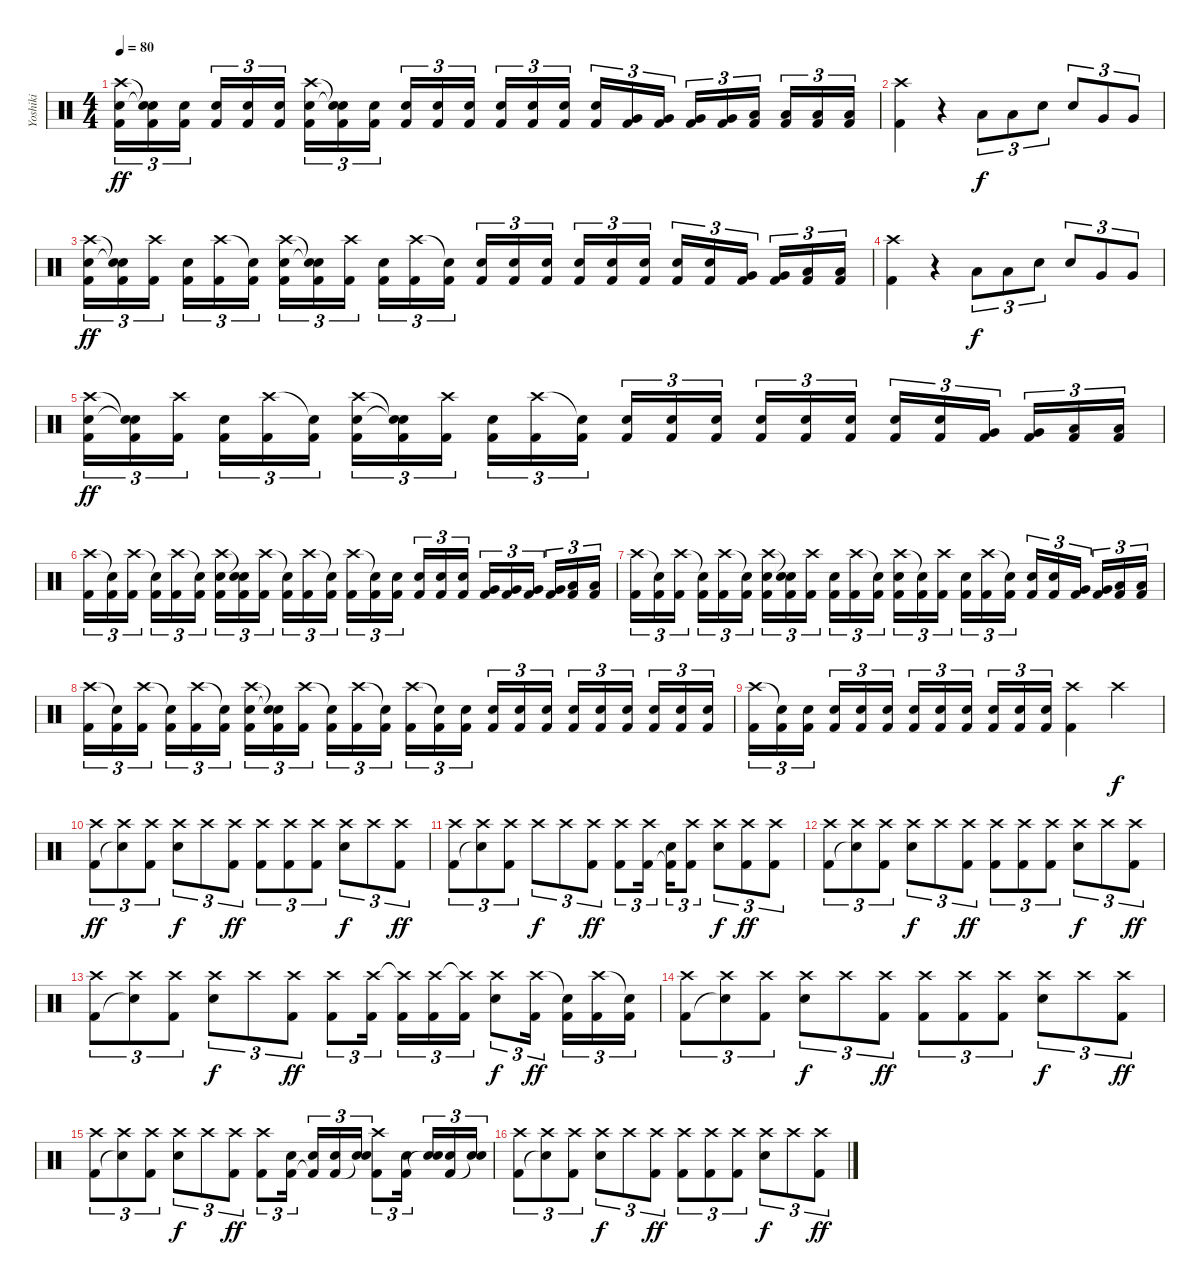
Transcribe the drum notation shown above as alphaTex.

\track ("Yoshiki" "Yoshiki") {instrument percussion}
\staff {score}
\articulation defaults
\ts (4 4)
\tempo 80
\clef neutral
\ks c
("Crash high (hit)" "Snare (hit) 2" "Kick (hit) 2").16{tu (3 2) dy ff} ("Snare (hit)"{t} "Snare (hit)"{t} "Kick (hit) 2").16{tu (3 2)} ("Snare (hit) 2" "Kick (hit) 2").16{tu (3 2)} ("Snare (hit) 2" "Kick (hit) 2").16{tu (3 2)} ("Snare (hit) 2" "Kick (hit) 2").16{tu (3 2)} ("Snare (hit) 2" "Kick (hit) 2").16{tu (3 2)} ("Crash high (hit)" "Snare (hit) 2" "Kick (hit) 2").16{tu (3 2)} ("Snare (hit)"{t} "Snare (hit)"{t} "Kick (hit) 2").16{tu (3 2)} ("Snare (hit) 2" "Kick (hit) 2").16{tu (3 2)} ("Snare (hit) 2" "Kick (hit) 2").16{tu (3 2)} ("Snare (hit) 2" "Kick (hit) 2").16{tu (3 2)} ("Snare (hit) 2" "Kick (hit) 2").16{tu (3 2)} ("Snare (hit) 2" "Kick (hit) 2").16{tu (3 2)} ("Snare (hit) 2" "Kick (hit) 2").16{tu (3 2)} ("Snare (hit) 2" "Kick (hit) 2").16{tu (3 2)} ("Snare (hit) 2" "Kick (hit) 2").16{tu (3 2)} ("Very Low Tom (hit)" "Kick (hit) 2").16{tu (3 2)} ("Very Low Tom (hit)" "Kick (hit) 2").16{tu (3 2)} ("Very Low Tom (hit)" "Kick (hit) 2").16{tu (3 2)} ("Very Low Tom (hit)" "Kick (hit) 2").16{tu (3 2)} ("Low Floor Tom (hit)" "Kick (hit) 2").16{tu (3 2)} ("Low Floor Tom (hit)" "Kick (hit) 2").16{tu (3 2)} ("Low Floor Tom (hit)" "Kick (hit) 2").16{tu (3 2)} ("Low Floor Tom (hit)" "Kick (hit) 2").16{tu (3 2)} |
("Crash high (hit)" "Kick (hit) 2").4 r.4 "Low Tom (hit)".8{tu (3 2) dy f} "Low Tom (hit)".8{tu (3 2)} "Snare (hit) 2".8{tu (3 2)} "Snare (hit) 2".8{tu (3 2)} "Very Low Tom (hit)".8{tu (3 2)} "Very Low Tom (hit)".8{tu (3 2)} |
("Crash high (hit)" "Snare (hit) 2" "Kick (hit) 2").16{tu (3 2) dy ff} ("Snare (hit)"{t} "Snare (hit)"{t} "Kick (hit) 2").16{tu (3 2)} ("Crash high (hit)" "Kick (hit) 2").16{tu (3 2)} ("Snare (hit) 2" "Kick (hit) 2").16{tu (3 2)} ("Crash high (hit)" "Kick (hit) 2").16{tu (3 2)} ("Snare (hit)"{t} "Kick (hit) 2").16{tu (3 2)} ("Crash high (hit)" "Snare (hit) 2" "Kick (hit) 2").16{tu (3 2)} ("Snare (hit)"{t} "Snare (hit)"{t} "Kick (hit) 2").16{tu (3 2)} ("Crash high (hit)" "Kick (hit) 2").16{tu (3 2)} ("Snare (hit) 2" "Kick (hit) 2").16{tu (3 2)} ("Crash high (hit)" "Kick (hit) 2").16{tu (3 2)} ("Snare (hit)"{t} "Kick (hit) 2").16{tu (3 2)} ("Snare (hit) 2" "Kick (hit) 2").16{tu (3 2)} ("Snare (hit) 2" "Kick (hit) 2").16{tu (3 2)} ("Snare (hit) 2" "Kick (hit) 2").16{tu (3 2)} ("Snare (hit) 2" "Kick (hit) 2").16{tu (3 2)} ("Snare (hit) 2" "Kick (hit) 2").16{tu (3 2)} ("Snare (hit) 2" "Kick (hit) 2").16{tu (3 2)} ("Snare (hit) 2" "Kick (hit) 2").16{tu (3 2)} ("Snare (hit) 2" "Kick (hit) 2").16{tu (3 2)} ("Very Low Tom (hit)" "Kick (hit) 2").16{tu (3 2)} ("Very Low Tom (hit)" "Kick (hit) 2").16{tu (3 2)} ("Low Floor Tom (hit)" "Kick (hit) 2").16{tu (3 2)} ("Low Floor Tom (hit)" "Kick (hit) 2").16{tu (3 2)} |
("Crash high (hit)" "Kick (hit) 2").4 r.4 "Low Tom (hit)".8{tu (3 2) dy f} "Low Tom (hit)".8{tu (3 2)} "Snare (hit) 2".8{tu (3 2)} "Snare (hit) 2".8{tu (3 2)} "Very Low Tom (hit)".8{tu (3 2)} "Very Low Tom (hit)".8{tu (3 2)} |
("Crash high (hit)" "Snare (hit) 2" "Kick (hit) 2").16{tu (3 2) dy ff} ("Snare (hit)"{t} "Snare (hit)"{t} "Kick (hit) 2").16{tu (3 2)} ("Crash high (hit)" "Kick (hit) 2").16{tu (3 2)} ("Snare (hit) 2" "Kick (hit) 2").16{tu (3 2)} ("Crash high (hit)" "Kick (hit) 2").16{tu (3 2)} ("Snare (hit)"{t} "Kick (hit) 2").16{tu (3 2)} ("Crash high (hit)" "Snare (hit) 2" "Kick (hit) 2").16{tu (3 2)} ("Snare (hit)"{t} "Snare (hit)"{t} "Kick (hit) 2").16{tu (3 2)} ("Crash high (hit)" "Kick (hit) 2").16{tu (3 2)} ("Snare (hit) 2" "Kick (hit) 2").16{tu (3 2)} ("Crash high (hit)" "Kick (hit) 2").16{tu (3 2)} ("Snare (hit)"{t} "Kick (hit) 2").16{tu (3 2)} ("Snare (hit) 2" "Kick (hit) 2").16{tu (3 2)} ("Snare (hit) 2" "Kick (hit) 2").16{tu (3 2)} ("Snare (hit) 2" "Kick (hit) 2").16{tu (3 2)} ("Snare (hit) 2" "Kick (hit) 2").16{tu (3 2)} ("Snare (hit) 2" "Kick (hit) 2").16{tu (3 2)} ("Snare (hit) 2" "Kick (hit) 2").16{tu (3 2)} ("Snare (hit) 2" "Kick (hit) 2").16{tu (3 2)} ("Snare (hit) 2" "Kick (hit) 2").16{tu (3 2)} ("Very Low Tom (hit)" "Kick (hit) 2").16{tu (3 2)} ("Very Low Tom (hit)" "Kick (hit) 2").16{tu (3 2)} ("Low Floor Tom (hit)" "Kick (hit) 2").16{tu (3 2)} ("Low Floor Tom (hit)" "Kick (hit) 2").16{tu (3 2)} |
("Crash high (hit)" "Kick (hit) 2").16{tu (3 2)} ("Snare (hit)"{t} "Kick (hit) 2").16{tu (3 2)} ("Crash high (hit)" "Kick (hit) 2").16{tu (3 2)} ("Snare (hit)"{t} "Kick (hit) 2").16{tu (3 2)} ("Crash high (hit)" "Kick (hit) 2").16{tu (3 2)} ("Snare (hit)"{t} "Kick (hit) 2").16{tu (3 2)} ("Crash high (hit)" "Snare (hit) 2" "Kick (hit) 2").16{tu (3 2)} ("Snare (hit)"{t} "Snare (hit)"{t} "Kick (hit) 2").16{tu (3 2)} ("Crash high (hit)" "Kick (hit) 2").16{tu (3 2)} ("Snare (hit)"{t} "Kick (hit) 2").16{tu (3 2)} ("Crash high (hit)" "Kick (hit) 2").16{tu (3 2)} ("Snare (hit)"{t} "Kick (hit) 2").16{tu (3 2)} ("Crash high (hit)" "Kick (hit) 2").16{tu (3 2)} ("Snare (hit)"{t} "Kick (hit) 2").16{tu (3 2)} ("Snare (hit) 2" "Kick (hit) 2").16{tu (3 2)} ("Snare (hit) 2" "Kick (hit) 2").16{tu (3 2)} ("Snare (hit) 2" "Kick (hit) 2").16{tu (3 2)} ("Snare (hit) 2" "Kick (hit) 2").16{tu (3 2)} ("Very Low Tom (hit)" "Kick (hit) 2").16{tu (3 2)} ("Very Low Tom (hit)" "Kick (hit) 2").16{tu (3 2)} ("Very Low Tom (hit)" "Kick (hit) 2").16{tu (3 2)} ("Very Low Tom (hit)" "Kick (hit) 2").16{tu (3 2)} ("Low Floor Tom (hit)" "Kick (hit) 2").16{tu (3 2)} ("Low Floor Tom (hit)" "Kick (hit) 2").16{tu (3 2)} |
("Crash high (hit)" "Kick (hit) 2").16{tu (3 2)} ("Snare (hit)"{t} "Kick (hit) 2").16{tu (3 2)} ("Crash high (hit)" "Kick (hit) 2").16{tu (3 2)} ("Snare (hit)"{t} "Kick (hit) 2").16{tu (3 2)} ("Crash high (hit)" "Kick (hit) 2").16{tu (3 2)} ("Snare (hit)"{t} "Kick (hit) 2").16{tu (3 2)} ("Crash high (hit)" "Snare (hit) 2" "Kick (hit) 2").16{tu (3 2)} ("Snare (hit)"{t} "Snare (hit)"{t} "Kick (hit) 2").16{tu (3 2)} ("Crash high (hit)" "Kick (hit) 2").16{tu (3 2)} ("Snare (hit) 2" "Kick (hit) 2").16{tu (3 2)} ("Crash high (hit)" "Kick (hit) 2").16{tu (3 2)} ("Snare (hit)"{t} "Kick (hit) 2").16{tu (3 2)} ("Crash high (hit)" "Snare (hit) 2" "Kick (hit) 2").16{tu (3 2)} ("Snare (hit)"{t} "Kick (hit) 2").16{tu (3 2)} ("Crash high (hit)" "Kick (hit) 2").16{tu (3 2)} ("Snare (hit) 2" "Kick (hit) 2").16{tu (3 2)} ("Crash high (hit)" "Kick (hit) 2").16{tu (3 2)} ("Snare (hit)"{t} "Kick (hit) 2").16{tu (3 2)} ("Snare (hit) 2" "Kick (hit) 2").16{tu (3 2)} ("Snare (hit) 2" "Kick (hit) 2").16{tu (3 2)} ("Very Low Tom (hit)" "Kick (hit) 2").16{tu (3 2)} ("Very Low Tom (hit)" "Kick (hit) 2").16{tu (3 2)} ("Low Floor Tom (hit)" "Kick (hit) 2").16{tu (3 2)} ("Low Floor Tom (hit)" "Kick (hit) 2").16{tu (3 2)} |
("Crash high (hit)" "Kick (hit) 2").16{tu (3 2)} ("Snare (hit)"{t} "Kick (hit) 2").16{tu (3 2)} ("Crash high (hit)" "Kick (hit) 2").16{tu (3 2)} ("Snare (hit)"{t} "Kick (hit) 2").16{tu (3 2)} ("Crash high (hit)" "Kick (hit) 2").16{tu (3 2)} ("Snare (hit)"{t} "Kick (hit) 2").16{tu (3 2)} ("Crash high (hit)" "Snare (hit) 2" "Kick (hit) 2").16{tu (3 2)} ("Snare (hit)"{t} "Snare (hit)"{t} "Kick (hit) 2").16{tu (3 2)} ("Crash high (hit)" "Kick (hit) 2").16{tu (3 2)} ("Snare (hit)"{t} "Kick (hit) 2").16{tu (3 2)} ("Crash high (hit)" "Kick (hit) 2").16{tu (3 2)} ("Snare (hit)"{t} "Kick (hit) 2").16{tu (3 2)} ("Crash high (hit)" "Kick (hit) 2").16{tu (3 2)} ("Snare (hit)"{t} "Kick (hit) 2").16{tu (3 2)} ("Snare (hit) 2" "Kick (hit) 2").16{tu (3 2)} ("Snare (hit) 2" "Kick (hit) 2").16{tu (3 2)} ("Snare (hit) 2" "Kick (hit) 2").16{tu (3 2)} ("Snare (hit) 2" "Kick (hit) 2").16{tu (3 2)} ("Snare (hit) 2" "Kick (hit) 2").16{tu (3 2)} ("Snare (hit) 2" "Kick (hit) 2").16{tu (3 2)} ("Snare (hit) 2" "Kick (hit) 2").16{tu (3 2)} ("Snare (hit) 2" "Kick (hit) 2").16{tu (3 2)} ("Snare (hit) 2" "Kick (hit) 2").16{tu (3 2)} ("Snare (hit) 2" "Kick (hit) 2").16{tu (3 2)} |
("Crash high (hit)" "Kick (hit) 2").16{tu (3 2)} ("Snare (hit)"{t} "Kick (hit) 2").16{tu (3 2)} ("Snare (hit) 2" "Kick (hit) 2").16{tu (3 2)} ("Snare (hit) 2" "Kick (hit) 2").16{tu (3 2)} ("Snare (hit) 2" "Kick (hit) 2").16{tu (3 2)} ("Snare (hit) 2" "Kick (hit) 2").16{tu (3 2)} ("Snare (hit) 2" "Kick (hit) 2").16{tu (3 2)} ("Snare (hit) 2" "Kick (hit) 2").16{tu (3 2)} ("Snare (hit) 2" "Kick (hit) 2").16{tu (3 2)} ("Snare (hit) 2" "Kick (hit) 2").16{tu (3 2)} ("Snare (hit) 2" "Kick (hit) 2").16{tu (3 2)} ("Snare (hit) 2" "Kick (hit) 2").16{tu (3 2)} ("Crash high (hit)" "Kick (hit) 2").4 "Crash high (hit)".4{dy f} |
("Crash high (hit)" "Kick (hit) 2").8{tu (3 2) dy ff} ("Crash high (hit)" "Snare (hit)"{t}).8{tu (3 2)} ("Crash high (hit)" "Kick (hit) 2").8{tu (3 2)} ("Crash high (hit)" "Snare (hit) 2").8{tu (3 2) dy f} "Crash high (hit)".8{tu (3 2)} ("Crash high (hit)" "Kick (hit) 2").8{tu (3 2) dy ff} ("Crash high (hit)" "Kick (hit) 2").8{tu (3 2)} ("Crash high (hit)" "Kick (hit) 2").8{tu (3 2)} ("Crash high (hit)" "Kick (hit) 2").8{tu (3 2)} ("Crash high (hit)" "Snare (hit) 2").8{tu (3 2) dy f} "Crash high (hit)".8{tu (3 2)} ("Crash high (hit)" "Kick (hit) 2").8{tu (3 2) dy ff} |
("Crash high (hit)" "Kick (hit) 2").8{tu (3 2)} ("Crash high (hit)" "Snare (hit)"{t}).8{tu (3 2)} ("Crash high (hit)" "Kick (hit) 2").8{tu (3 2)} "Crash high (hit)".8{tu (3 2) dy f} "Crash high (hit)".8{tu (3 2)} ("Crash high (hit)" "Kick (hit) 2").8{tu (3 2) dy ff} ("Crash high (hit)" "Kick (hit) 2").8{tu (3 2)} ("Crash high (hit)" "Kick (hit) 2").16{tu (3 2)} ("Snare (hit) 2" "Kick (hit) 2"{t}).16{tu (3 2)} ("Crash high (hit)" "Kick (hit) 2").8{tu (3 2)} ("Crash high (hit)" "Snare (hit) 2").8{tu (3 2) dy f} ("Crash high (hit)" "Kick (hit) 2").8{tu (3 2) dy ff} ("Crash high (hit)" "Kick (hit) 2").8{tu (3 2)} |
("Crash high (hit)" "Kick (hit) 2").8{tu (3 2)} ("Crash high (hit)" "Snare (hit)"{t}).8{tu (3 2)} ("Crash high (hit)" "Kick (hit) 2").8{tu (3 2)} ("Crash high (hit)" "Snare (hit) 2").8{tu (3 2) dy f} "Crash high (hit)".8{tu (3 2)} ("Crash high (hit)" "Kick (hit) 2").8{tu (3 2) dy ff} ("Crash high (hit)" "Kick (hit) 2").8{tu (3 2)} ("Crash high (hit)" "Kick (hit) 2").8{tu (3 2)} ("Crash high (hit)" "Kick (hit) 2").8{tu (3 2)} ("Crash high (hit)" "Snare (hit) 2").8{tu (3 2) dy f} "Crash high (hit)".8{tu (3 2)} ("Crash high (hit)" "Kick (hit) 2").8{tu (3 2) dy ff} |
("Crash high (hit)" "Kick (hit) 2").8{tu (3 2)} ("Crash high (hit)" "Snare (hit)"{t}).8{tu (3 2)} ("Crash high (hit)" "Kick (hit) 2").8{tu (3 2)} ("Crash high (hit)" "Snare (hit) 2").8{tu (3 2) dy f} "Crash high (hit)".8{tu (3 2)} ("Crash high (hit)" "Kick (hit) 2").8{tu (3 2) dy ff} ("Crash high (hit)" "Kick (hit) 2").8{tu (3 2)} ("Crash high (hit)" "Kick (hit) 2").16{tu (3 2)} ("Crash high (hit)"{t} "Kick (hit) 2").16{tu (3 2)} ("Crash high (hit)" "Kick (hit) 2").16{tu (3 2)} ("Crash high (hit)"{t} "Kick (hit) 2").16{tu (3 2)} ("Crash high (hit)" "Snare (hit) 2").8{tu (3 2) dy f} ("Crash high (hit)" "Kick (hit) 2").16{tu (3 2) dy ff} ("Snare (hit)"{t} "Kick (hit) 2").16{tu (3 2)} ("Crash high (hit)" "Kick (hit) 2").16{tu (3 2)} ("Snare (hit)"{t} "Kick (hit) 2").16{tu (3 2)} |
("Crash high (hit)" "Kick (hit) 2").8{tu (3 2)} ("Crash high (hit)" "Snare (hit)"{t}).8{tu (3 2)} ("Crash high (hit)" "Kick (hit) 2").8{tu (3 2)} ("Crash high (hit)" "Snare (hit) 2").8{tu (3 2) dy f} "Crash high (hit)".8{tu (3 2)} ("Crash high (hit)" "Kick (hit) 2").8{tu (3 2) dy ff} ("Crash high (hit)" "Kick (hit) 2").8{tu (3 2)} ("Crash high (hit)" "Kick (hit) 2").8{tu (3 2)} ("Crash high (hit)" "Kick (hit) 2").8{tu (3 2)} ("Crash high (hit)" "Snare (hit) 2").8{tu (3 2) dy f} "Crash high (hit)".8{tu (3 2)} ("Crash high (hit)" "Kick (hit) 2").8{tu (3 2) dy ff} |
("Crash high (hit)" "Kick (hit) 2").8{tu (3 2)} ("Crash high (hit)" "Snare (hit)"{t}).8{tu (3 2)} ("Crash high (hit)" "Kick (hit) 2").8{tu (3 2)} ("Crash high (hit)" "Snare (hit) 2").8{tu (3 2) dy f} "Crash high (hit)".8{tu (3 2)} ("Crash high (hit)" "Kick (hit) 2").8{tu (3 2) dy ff} ("Crash high (hit)" "Kick (hit) 2").8{tu (3 2)} ("Snare (hit) 2" "Kick (hit) 2").16{tu (3 2)} ("Snare (hit) 2" "Kick (hit) 2"{t}).16{tu (3 2)} ("Snare (hit) 2" "Kick (hit) 2").16{tu (3 2)} ("Snare (hit) 2" "Snare (hit)"{t}).16{tu (3 2)} ("Crash high (hit)" "Kick (hit) 2").8{tu (3 2)} ("Snare (hit) 2" "Kick (hit) 2").16{tu (3 2)} ("Snare (hit) 2" "Snare (hit)"{t}).16{tu (3 2)} ("Snare (hit) 2" "Kick (hit) 2").16{tu (3 2)} ("Snare (hit) 2" "Snare (hit)"{t}).16{tu (3 2)} |
("Crash high (hit)" "Kick (hit) 2").8{tu (3 2)} ("Crash high (hit)" "Snare (hit)"{t}).8{tu (3 2)} ("Crash high (hit)" "Kick (hit) 2").8{tu (3 2)} ("Crash high (hit)" "Snare (hit) 2").8{tu (3 2) dy f} "Crash high (hit)".8{tu (3 2)} ("Crash high (hit)" "Kick (hit) 2").8{tu (3 2) dy ff} ("Crash high (hit)" "Kick (hit) 2").8{tu (3 2)} ("Crash high (hit)" "Kick (hit) 2").8{tu (3 2)} ("Crash high (hit)" "Kick (hit) 2").8{tu (3 2)} ("Crash high (hit)" "Snare (hit) 2").8{tu (3 2) dy f} "Crash high (hit)".8{tu (3 2)} ("Crash high (hit)" "Kick (hit) 2").8{tu (3 2) dy ff}
